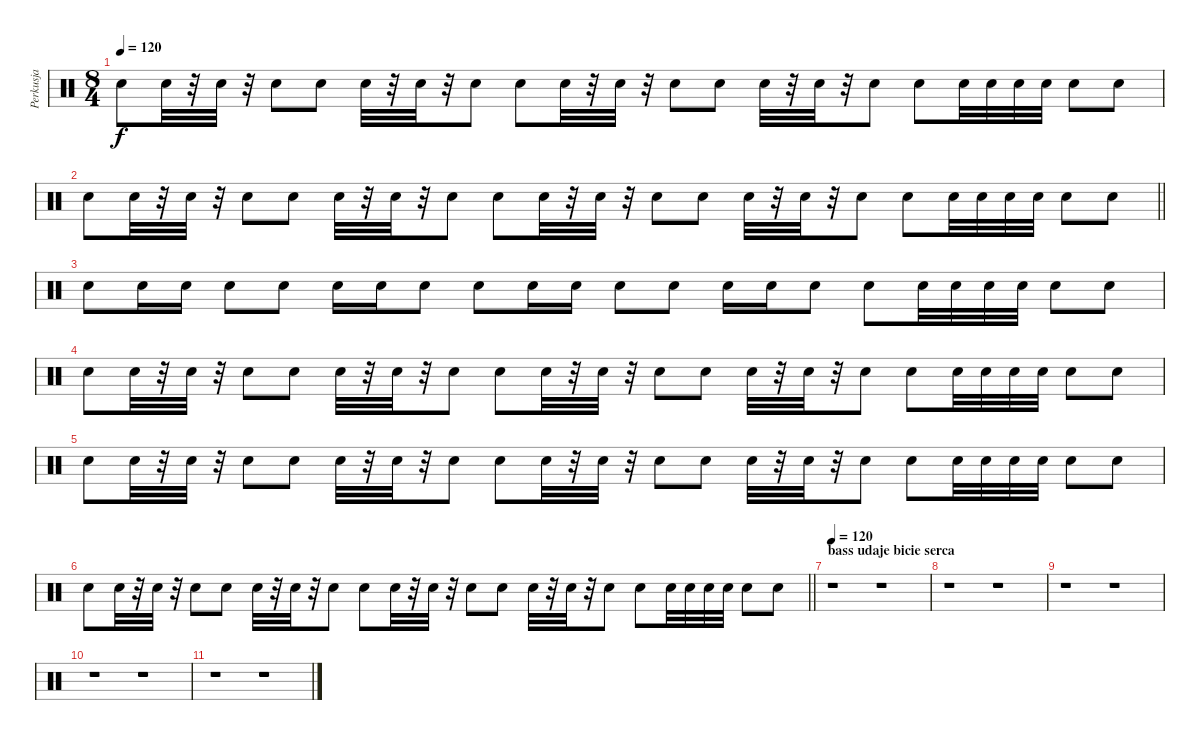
\track ("Perkusja" "Perkusja") {instrument percussion}
\staff {score}
\articulation defaults
\ts (8 4)
\tempo 120
\clef neutral
\ks c "Snare (hit) 2".8{dy f} "Snare (hit) 2".32
r.32 "Snare (hit) 2".32 r.32 "Snare (hit) 2".8 "Snare (hit) 2".8 "Snare (hit) 2".32 r.32 "Snare (hit) 2".32 r.32 "Snare (hit) 2".8 "Snare (hit) 2".8 "Snare (hit) 2".32 r.32 "Snare (hit) 2".32 r.32 "Snare (hit) 2".8 "Snare (hit) 2".8 "Snare (hit) 2".32 r.32 "Snare (hit) 2".32 r.32 "Snare (hit) 2".8 "Snare (hit) 2".8 "Snare (hit) 2".32 "Snare (hit) 2".32 "Snare (hit) 2".32 "Snare (hit) 2".32 "Snare (hit) 2".8 "Snare (hit) 2".8 |
\barLineRight lightlight "Snare (hit) 2".8 "Snare (hit) 2".32
r.32 "Snare (hit) 2".32 r.32 "Snare (hit) 2".8 "Snare (hit) 2".8 "Snare (hit) 2".32 r.32 "Snare (hit) 2".32 r.32 "Snare (hit) 2".8 "Snare (hit) 2".8 "Snare (hit) 2".32 r.32 "Snare (hit) 2".32 r.32 "Snare (hit) 2".8 "Snare (hit) 2".8 "Snare (hit) 2".32 r.32 "Snare (hit) 2".32 r.32 "Snare (hit) 2".8 "Snare (hit) 2".8 "Snare (hit) 2".32 "Snare (hit) 2".32 "Snare (hit) 2".32 "Snare (hit) 2".32 "Snare (hit) 2".8 "Snare (hit) 2".8 |
"Snare (hit) 2".8 "Snare (hit) 2".16 "Snare (hit) 2".16 "Snare (hit) 2".8 "Snare (hit) 2".8 "Snare (hit) 2".16 "Snare (hit) 2".16 "Snare (hit) 2".8 "Snare (hit) 2".8 "Snare (hit) 2".16 "Snare (hit) 2".16 "Snare (hit) 2".8 "Snare (hit) 2".8 "Snare (hit) 2".16 "Snare (hit) 2".16 "Snare (hit) 2".8 "Snare (hit) 2".8 "Snare (hit) 2".32 "Snare (hit) 2".32 "Snare (hit) 2".32 "Snare (hit) 2".32 "Snare (hit) 2".8 "Snare (hit) 2".8 |
"Snare (hit) 2".8 "Snare (hit) 2".32 r.32 "Snare (hit) 2".32 r.32 "Snare (hit) 2".8 "Snare (hit) 2".8 "Snare (hit) 2".32 r.32 "Snare (hit) 2".32 r.32 "Snare (hit) 2".8 "Snare (hit) 2".8 "Snare (hit) 2".32 r.32 "Snare (hit) 2".32 r.32 "Snare (hit) 2".8 "Snare (hit) 2".8 "Snare (hit) 2".32 r.32 "Snare (hit) 2".32 r.32 "Snare (hit) 2".8 "Snare (hit) 2".8 "Snare (hit) 2".32 "Snare (hit) 2".32 "Snare (hit) 2".32 "Snare (hit) 2".32 "Snare (hit) 2".8 "Snare (hit) 2".8 |
"Snare (hit) 2".8 "Snare (hit) 2".32 r.32 "Snare (hit) 2".32 r.32 "Snare (hit) 2".8 "Snare (hit) 2".8 "Snare (hit) 2".32 r.32 "Snare (hit) 2".32 r.32 "Snare (hit) 2".8 "Snare (hit) 2".8 "Snare (hit) 2".32 r.32 "Snare (hit) 2".32 r.32 "Snare (hit) 2".8 "Snare (hit) 2".8 "Snare (hit) 2".32 r.32 "Snare (hit) 2".32 r.32 "Snare (hit) 2".8 "Snare (hit) 2".8 "Snare (hit) 2".32 "Snare (hit) 2".32 "Snare (hit) 2".32 "Snare (hit) 2".32 "Snare (hit) 2".8 "Snare (hit) 2".8 |
\barLineRight lightlight "Snare (hit) 2".8 "Snare (hit) 2".32
r.32 "Snare (hit) 2".32 r.32 "Snare (hit) 2".8 "Snare (hit) 2".8 "Snare (hit) 2".32 r.32 "Snare (hit) 2".32 r.32 "Snare (hit) 2".8 "Snare (hit) 2".8 "Snare (hit) 2".32 r.32 "Snare (hit) 2".32 r.32 "Snare (hit) 2".8 "Snare (hit) 2".8 "Snare (hit) 2".32 r.32 "Snare (hit) 2".32 r.32 "Snare (hit) 2".8 "Snare (hit) 2".8 "Snare (hit) 2".32 "Snare (hit) 2".32 "Snare (hit) 2".32 "Snare (hit) 2".32 "Snare (hit) 2".8 "Snare (hit) 2".8 |
\section ("" "bass udaje bicie serca")
\tempo 120
r.1 r.1 |
r.1 r.1 |
r.1 r.1 |
r.1 r.1 |
r.1 r.1
